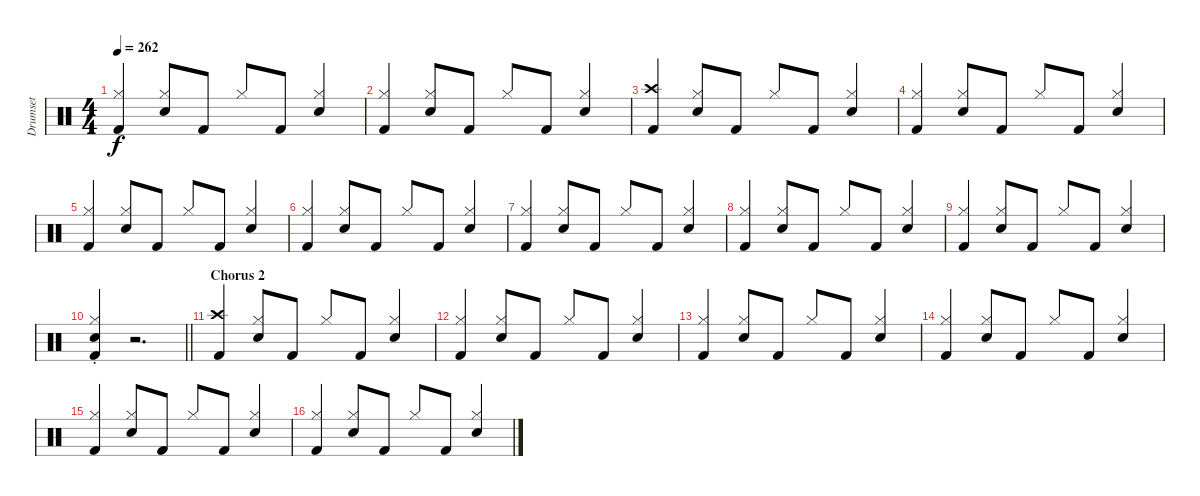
\track ("Drumset" "Drumset") {instrument percussion}
\staff {score}
\articulation defaults
\ts (4 4)
\tempo 262
\clef neutral
\ks c
("Hi-Hat (closed)" "Kick (hit) 2").4{dy f beam Up} ("Hi-Hat (closed)" "Snare (hit) 2").8{beam Up} "Kick (hit) 2".8{beam Up} "Hi-Hat (closed)".8{beam Up} "Kick (hit) 2".8{beam Up} ("Snare (hit) 2" "Hi-Hat (closed)").4{beam Up} |
("Hi-Hat (closed)" "Kick (hit) 2").4{beam Up} ("Hi-Hat (closed)" "Snare (hit) 2").8{beam Up} "Kick (hit) 2".8{beam Up} "Hi-Hat (closed)".8{beam Up} "Kick (hit) 2".8{beam Up} ("Snare (hit) 2" "Hi-Hat (closed)").4{beam Up} |
("Crash high (hit)" "Kick (hit) 2").4{beam Up} ("Hi-Hat (closed)" "Snare (hit) 2").8{beam Up} "Kick (hit) 2".8{beam Up} "Hi-Hat (closed)".8{beam Up} "Kick (hit) 2".8{beam Up} ("Snare (hit) 2" "Hi-Hat (closed)").4{beam Up} |
("Hi-Hat (closed)" "Kick (hit) 2").4{beam Up} ("Hi-Hat (closed)" "Snare (hit) 2").8{beam Up} "Kick (hit) 2".8{beam Up} "Hi-Hat (closed)".8{beam Up} "Kick (hit) 2".8{beam Up} ("Snare (hit) 2" "Hi-Hat (closed)").4{beam Up} |
("Hi-Hat (closed)" "Kick (hit) 2").4{beam Up} ("Hi-Hat (closed)" "Snare (hit) 2").8{beam Up} "Kick (hit) 2".8{beam Up} "Hi-Hat (closed)".8{beam Up} "Kick (hit) 2".8{beam Up} ("Snare (hit) 2" "Hi-Hat (closed)").4{beam Up} |
("Hi-Hat (closed)" "Kick (hit) 2").4{beam Up} ("Hi-Hat (closed)" "Snare (hit) 2").8{beam Up} "Kick (hit) 2".8{beam Up} "Hi-Hat (closed)".8{beam Up} "Kick (hit) 2".8{beam Up} ("Snare (hit) 2" "Hi-Hat (closed)").4{beam Up} |
("Hi-Hat (closed)" "Kick (hit) 2").4{beam Up} ("Hi-Hat (closed)" "Snare (hit) 2").8{beam Up} "Kick (hit) 2".8{beam Up} "Hi-Hat (closed)".8{beam Up} "Kick (hit) 2".8{beam Up} ("Snare (hit) 2" "Hi-Hat (closed)").4{beam Up} |
("Hi-Hat (closed)" "Kick (hit) 2").4{beam Up} ("Hi-Hat (closed)" "Snare (hit) 2").8{beam Up} "Kick (hit) 2".8{beam Up} "Hi-Hat (closed)".8{beam Up} "Kick (hit) 2".8{beam Up} ("Snare (hit) 2" "Hi-Hat (closed)").4{beam Up} |
("Hi-Hat (closed)" "Kick (hit) 2").4{beam Up} ("Hi-Hat (closed)" "Snare (hit) 2").8{beam Up} "Kick (hit) 2".8{beam Up} "Hi-Hat (closed)".8{beam Up} "Kick (hit) 2".8{beam Up} ("Snare (hit) 2" "Hi-Hat (closed)").4{beam Up} |
\barLineRight lightlight
("Hi-Hat (closed)"{st} "Kick (hit) 2"{st} "Snare (hit) 2"{st}).4{beam Up} r.2{d} |
\section ("" "Chorus 2")
("Crash high (hit)" "Kick (hit) 2").4{beam Up} ("Snare (hit) 2" "Hi-Hat (closed)").8{beam Up} "Kick (hit) 2".8{beam Up} "Hi-Hat (closed)".8{beam Up} "Kick (hit) 2".8{beam Up} ("Snare (hit) 2" "Hi-Hat (closed)").4{beam Up} |
("Hi-Hat (closed)" "Kick (hit) 2").4{beam Up} ("Hi-Hat (closed)" "Snare (hit) 2").8{beam Up} "Kick (hit) 2".8{beam Up} "Hi-Hat (closed)".8{beam Up} "Kick (hit) 2".8{beam Up} ("Snare (hit) 2" "Hi-Hat (closed)").4{beam Up} |
("Hi-Hat (closed)" "Kick (hit) 2").4{beam Up} ("Hi-Hat (closed)" "Snare (hit) 2").8{beam Up} "Kick (hit) 2".8{beam Up} "Hi-Hat (closed)".8{beam Up} "Kick (hit) 2".8{beam Up} ("Snare (hit) 2" "Hi-Hat (closed)").4{beam Up} |
("Hi-Hat (closed)" "Kick (hit) 2").4{beam Up} ("Hi-Hat (closed)" "Snare (hit) 2").8{beam Up} "Kick (hit) 2".8{beam Up} "Hi-Hat (closed)".8{beam Up} "Kick (hit) 2".8{beam Up} ("Snare (hit) 2" "Hi-Hat (closed)").4{beam Up} |
("Hi-Hat (closed)" "Kick (hit) 2").4{beam Up} ("Hi-Hat (closed)" "Snare (hit) 2").8{beam Up} "Kick (hit) 2".8{beam Up} "Hi-Hat (closed)".8{beam Up} "Kick (hit) 2".8{beam Up} ("Snare (hit) 2" "Hi-Hat (closed)").4{beam Up} |
("Hi-Hat (closed)" "Kick (hit) 2").4{beam Up} ("Hi-Hat (closed)" "Snare (hit) 2").8{beam Up} "Kick (hit) 2".8{beam Up} "Hi-Hat (closed)".8{beam Up} "Kick (hit) 2".8{beam Up} ("Snare (hit) 2" "Hi-Hat (closed)").4{beam Up}
